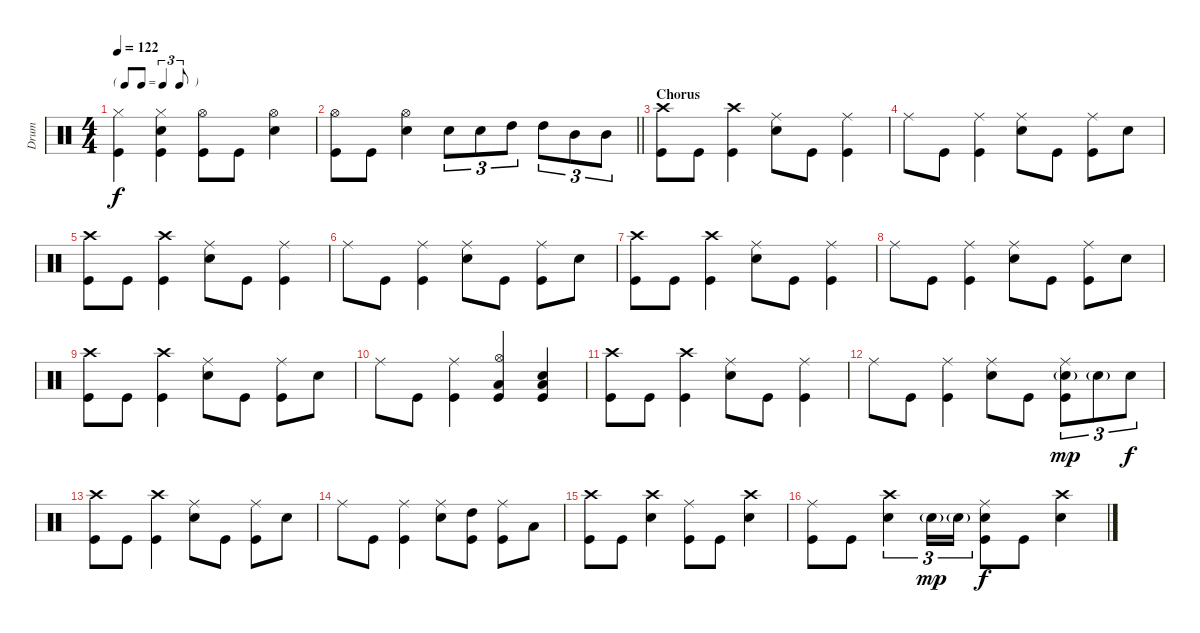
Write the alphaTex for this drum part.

\track ("Drum" "Drum") {instrument percussion}
\staff {score}
\articulation defaults
\ts (4 4)
\tf triplet8th
\tempo 122
\clef neutral
\ks c
("Hi-Hat (closed)" "Kick (hit)").4{dy f} ("Hi-Hat (closed)" "Electric Snare (hit)" "Kick (hit)").4 ("Hi-Hat (open)" "Kick (hit)").8 "Kick (hit)".8 ("Hi-Hat (open)" "Electric Snare (hit)").4 |
\barLineRight lightlight
("Hi-Hat (open)" "Kick (hit)").8 "Kick (hit)".8 ("Hi-Hat (open)" "Electric Snare (hit)").4 "Electric Snare (hit)".8{tu (3 2)} "Electric Snare (hit)".8{tu (3 2)} "High Tom (hit)".8{tu (3 2)} "High Tom (hit)".8{tu (3 2)} "Mid Tom (hit)".8{tu (3 2)} "Mid Tom (hit)".8{tu (3 2)} |
\section ("" "Chorus")
("Crash high (hit)" "Kick (hit)").8 "Kick (hit)".8 ("Crash high (hit)" "Kick (hit)").4 ("Ride (middle)" "Electric Snare (hit)").8 "Kick (hit)".8 ("Ride (middle)" "Kick (hit)").4 |
"Ride (middle)".8 "Kick (hit)".8 ("Ride (middle)" "Kick (hit)").4 ("Ride (middle)" "Electric Snare (hit)").8 "Kick (hit)".8 ("Ride (middle)" "Kick (hit)").8 "Electric Snare (hit)".8 |
("Crash high (hit)" "Kick (hit)").8 "Kick (hit)".8 ("Crash high (hit)" "Kick (hit)").4 ("Ride (middle)" "Electric Snare (hit)").8 "Kick (hit)".8 ("Ride (middle)" "Kick (hit)").4 |
"Ride (middle)".8 "Kick (hit)".8 ("Ride (middle)" "Kick (hit)").4 ("Ride (middle)" "Electric Snare (hit)").8 "Kick (hit)".8 ("Ride (middle)" "Kick (hit)").8 "Electric Snare (hit)".8 |
("Crash high (hit)" "Kick (hit)").8 "Kick (hit)".8 ("Crash high (hit)" "Kick (hit)").4 ("Ride (middle)" "Electric Snare (hit)").8 "Kick (hit)".8 ("Ride (middle)" "Kick (hit)").4 |
"Ride (middle)".8 "Kick (hit)".8 ("Ride (middle)" "Kick (hit)").4 ("Ride (middle)" "Electric Snare (hit)").8 "Kick (hit)".8 ("Ride (middle)" "Kick (hit)").8 "Electric Snare (hit)".8 |
("Crash high (hit)" "Kick (hit)").8 "Kick (hit)".8 ("Crash high (hit)" "Kick (hit)").4 ("Ride (middle)" "Electric Snare (hit)").8 "Kick (hit)".8 ("Ride (middle)" "Kick (hit)").8 "Electric Snare (hit)".8 |
"Ride (middle)".8 "Kick (hit)".8 ("Ride (middle)" "Kick (hit)").4 ("Hi-Hat (open)" "Low Tom (hit)" "Kick (hit)").4 ("Electric Snare (hit)" "Low Floor Tom (hit)" "Kick (hit)").4 |
("Crash high (hit)" "Kick (hit)").8 "Kick (hit)".8 ("Crash high (hit)" "Kick (hit)").4 ("Ride (middle)" "Electric Snare (hit)").8 "Kick (hit)".8 ("Ride (middle)" "Kick (hit)").4 |
"Ride (middle)".8 "Kick (hit)".8 ("Ride (middle)" "Kick (hit)").4 ("Ride (middle)" "Electric Snare (hit)").8 "Kick (hit)".8 ("Ride (middle)" "Electric Snare (hit)"{g} "Kick (hit)").8{tu (3 2) dy mp} "Electric Snare (hit)"{g}.8{tu (3 2)} "Electric Snare (hit)".8{tu (3 2) dy f} |
("Crash high (hit)" "Kick (hit)").8 "Kick (hit)".8 ("Crash high (hit)" "Kick (hit)").4 ("Ride (middle)" "Electric Snare (hit)").8 "Kick (hit)".8 ("Ride (middle)" "Kick (hit)").8 "Electric Snare (hit)".8 |
"Ride (middle)".8 "Kick (hit)".8 ("Ride (middle)" "Kick (hit)").4 ("Ride (middle)" "Electric Snare (hit)").8 ("High Tom (hit)" "Kick (hit)").8 ("Ride (middle)" "Kick (hit)").8 "Low Tom (hit)".8 |
("Crash high (hit)" "Kick (hit)").8 "Kick (hit)".8 ("Crash high (hit)" "Electric Snare (hit)").4 ("Ride (middle)" "Kick (hit)").8 "Kick (hit)".8 ("Crash high (hit)" "Electric Snare (hit)").4 |
("Ride (middle)" "Kick (hit)").8 "Kick (hit)".8 ("Crash high (hit)" "Electric Snare (hit)").4{tu (3 2)} "Electric Snare (hit)"{g}.16{tu (3 2) dy mp} "Electric Snare (hit)"{g}.16{tu (3 2)} ("Ride (middle)" "Electric Snare (hit)" "Kick (hit)").8{dy f} "Kick (hit)".8 ("Crash high (hit)" "Electric Snare (hit)").4
